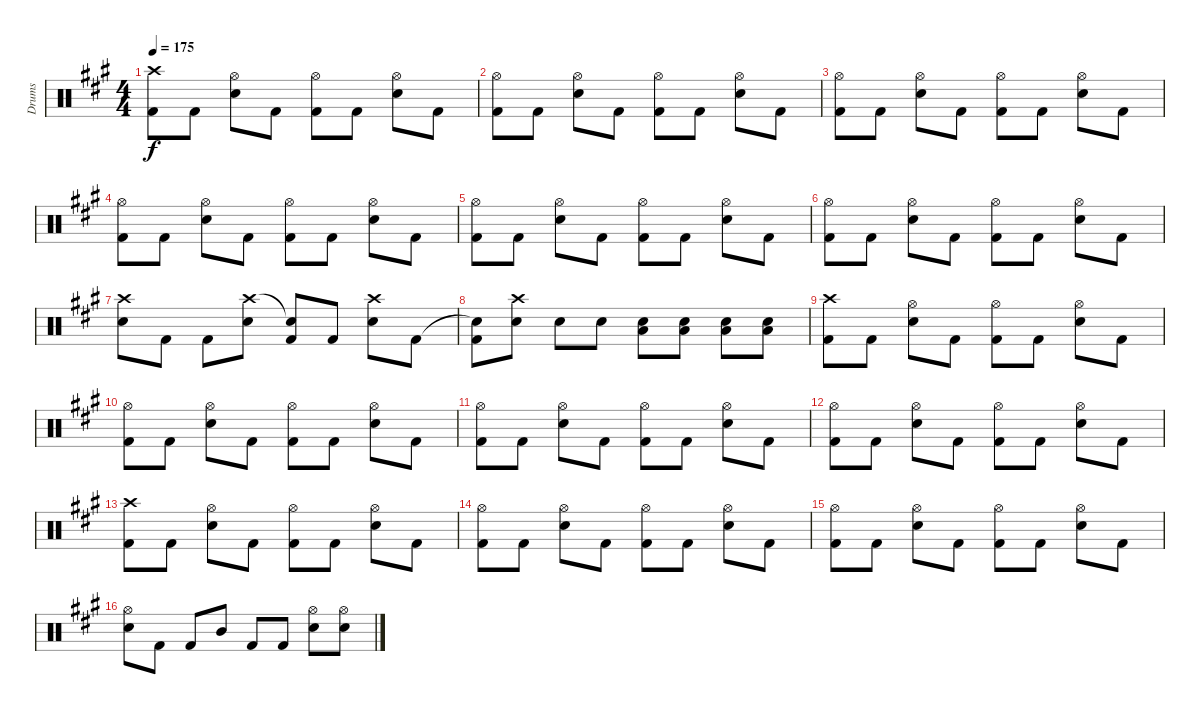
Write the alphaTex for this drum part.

\track ("Drums" "Drums") {instrument percussion}
\staff {score}
\articulation defaults
\ts (4 4)
\tempo 175
\clef neutral
\ks a
("Crash high (hit)" "Kick (hit) 2").8{dy f} "Kick (hit) 2".8 ("Hi-Hat (open)" "Snare (hit) 2").8 "Kick (hit) 2".8 ("Hi-Hat (open)" "Kick (hit) 2").8 "Kick (hit) 2".8 ("Hi-Hat (open)" "Snare (hit) 2").8 "Kick (hit) 2".8 |
("Hi-Hat (open)" "Kick (hit) 2").8 "Kick (hit) 2".8 ("Hi-Hat (open)" "Snare (hit) 2").8 "Kick (hit) 2".8 ("Hi-Hat (open)" "Kick (hit) 2").8 "Kick (hit) 2".8 ("Hi-Hat (open)" "Snare (hit) 2").8 "Kick (hit) 2".8 |
("Hi-Hat (open)" "Kick (hit) 2").8 "Kick (hit) 2".8 ("Hi-Hat (open)" "Snare (hit) 2").8 "Kick (hit) 2".8 ("Hi-Hat (open)" "Kick (hit) 2").8 "Kick (hit) 2".8 ("Hi-Hat (open)" "Snare (hit) 2").8 "Kick (hit) 2".8 |
("Hi-Hat (open)" "Kick (hit) 2").8 "Kick (hit) 2".8 ("Hi-Hat (open)" "Snare (hit) 2").8 "Kick (hit) 2".8 ("Hi-Hat (open)" "Kick (hit) 2").8 "Kick (hit) 2".8 ("Hi-Hat (open)" "Snare (hit) 2").8 "Kick (hit) 2".8 |
("Hi-Hat (open)" "Kick (hit) 2").8 "Kick (hit) 2".8 ("Hi-Hat (open)" "Snare (hit) 2").8 "Kick (hit) 2".8 ("Hi-Hat (open)" "Kick (hit) 2").8 "Kick (hit) 2".8 ("Hi-Hat (open)" "Snare (hit) 2").8 "Kick (hit) 2".8 |
("Hi-Hat (open)" "Kick (hit) 2").8 "Kick (hit) 2".8 ("Hi-Hat (open)" "Snare (hit) 2").8 "Kick (hit) 2".8 ("Hi-Hat (open)" "Kick (hit) 2").8 "Kick (hit) 2".8 ("Hi-Hat (open)" "Snare (hit) 2").8 "Kick (hit) 2".8 |
("Crash high (hit)" "Snare (hit) 2").8 "Kick (hit) 2".8 "Kick (hit) 2".8 ("Crash high (hit)" "Snare (hit) 2").8 ("Snare (hit)"{t} "Kick (hit) 2").8 "Kick (hit) 2".8 ("Crash high (hit)" "Snare (hit) 2").8 "Kick (hit) 2".8 |
("Snare (hit)"{t} "Kick (hit) 2").8 ("Crash high (hit)" "Snare (hit) 2").8 "Snare (hit) 2".8 "Snare (hit) 2".8 ("Snare (hit) 2" "Low Tom (hit)").8 ("Snare (hit) 2" "Low Tom (hit)").8 ("Snare (hit) 2" "Low Tom (hit)").8 ("Snare (hit) 2" "Low Tom (hit)").8 |
("Crash high (hit)" "Kick (hit) 2").8 "Kick (hit) 2".8 ("Hi-Hat (open)" "Snare (hit) 2").8 "Kick (hit) 2".8 ("Hi-Hat (open)" "Kick (hit) 2").8 "Kick (hit) 2".8 ("Hi-Hat (open)" "Snare (hit) 2").8 "Kick (hit) 2".8 |
("Hi-Hat (open)" "Kick (hit) 2").8 "Kick (hit) 2".8 ("Hi-Hat (open)" "Snare (hit) 2").8 "Kick (hit) 2".8 ("Hi-Hat (open)" "Kick (hit) 2").8 "Kick (hit) 2".8 ("Hi-Hat (open)" "Snare (hit) 2").8 "Kick (hit) 2".8 |
("Hi-Hat (open)" "Kick (hit) 2").8 "Kick (hit) 2".8 ("Hi-Hat (open)" "Snare (hit) 2").8 "Kick (hit) 2".8 ("Hi-Hat (open)" "Kick (hit) 2").8 "Kick (hit) 2".8 ("Hi-Hat (open)" "Snare (hit) 2").8 "Kick (hit) 2".8 |
("Hi-Hat (open)" "Kick (hit) 2").8 "Kick (hit) 2".8 ("Hi-Hat (open)" "Snare (hit) 2").8 "Kick (hit) 2".8 ("Hi-Hat (open)" "Kick (hit) 2").8 "Kick (hit) 2".8 ("Hi-Hat (open)" "Snare (hit) 2").8 "Kick (hit) 2".8 |
("Crash high (hit)" "Kick (hit) 2").8 "Kick (hit) 2".8 ("Hi-Hat (open)" "Snare (hit) 2").8 "Kick (hit) 2".8 ("Hi-Hat (open)" "Kick (hit) 2").8 "Kick (hit) 2".8 ("Hi-Hat (open)" "Snare (hit) 2").8 "Kick (hit) 2".8 |
("Hi-Hat (open)" "Kick (hit) 2").8 "Kick (hit) 2".8 ("Hi-Hat (open)" "Snare (hit) 2").8 "Kick (hit) 2".8 ("Hi-Hat (open)" "Kick (hit) 2").8 "Kick (hit) 2".8 ("Hi-Hat (open)" "Snare (hit) 2").8 "Kick (hit) 2".8 |
("Hi-Hat (open)" "Kick (hit) 2").8 "Kick (hit) 2".8 ("Hi-Hat (open)" "Snare (hit) 2").8 "Kick (hit) 2".8 ("Hi-Hat (open)" "Kick (hit) 2").8 "Kick (hit) 2".8 ("Hi-Hat (open)" "Snare (hit) 2").8 "Kick (hit) 2".8 |
("Hi-Hat (open)" "Snare (hit) 2").8 "Kick (hit) 2".8 "Kick (hit) 2".8 "Mid Tom (hit)".8 "Kick (hit) 2".8 "Kick (hit) 2".8 ("Hi-Hat (open)" "Snare (hit) 2").8 ("Hi-Hat (open)" "Snare (hit) 2").8
